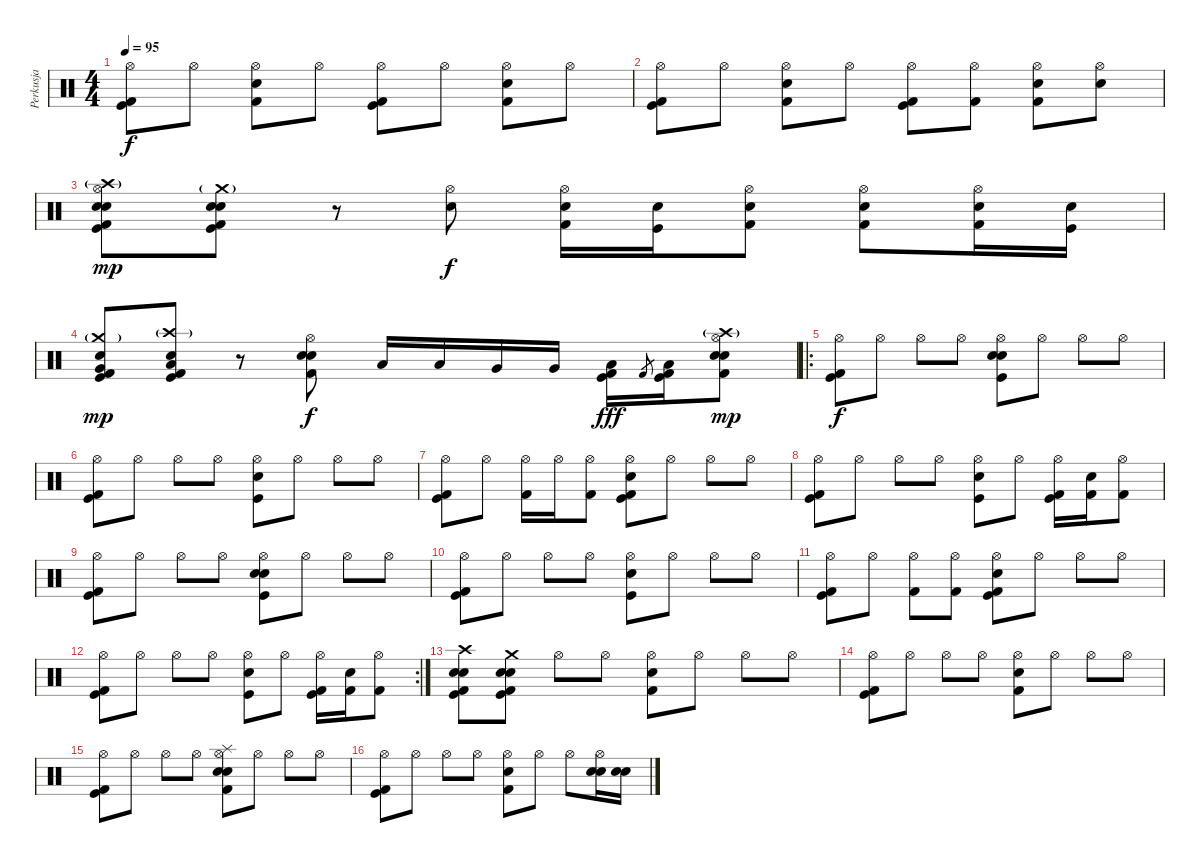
\track ("Perkusja" "Perkusja") {instrument percussion}
\staff {score}
\articulation defaults
\ts (4 4)
\tempo 95
\clef neutral
\ks c
("Hi-Hat (open)" "Kick (hit)" "Kick (hit) 2").8{dy f} "Hi-Hat (open)".8 ("Hi-Hat (open)" "Electric Snare (hit)" "Kick (hit) 2").8 "Hi-Hat (open)".8 ("Hi-Hat (open)" "Kick (hit)" "Kick (hit) 2").8 "Hi-Hat (open)".8 ("Hi-Hat (open)" "Electric Snare (hit)" "Kick (hit) 2").8 "Hi-Hat (open)".8 |
("Hi-Hat (open)" "Kick (hit)" "Kick (hit) 2").8 "Hi-Hat (open)".8 ("Hi-Hat (open)" "Electric Snare (hit)" "Kick (hit) 2").8 "Hi-Hat (open)".8 ("Hi-Hat (open)" "Kick (hit)" "Kick (hit) 2").8 ("Hi-Hat (open)" "Kick (hit) 2").8 ("Hi-Hat (open)" "Electric Snare (hit)" "Kick (hit) 2").8 ("Hi-Hat (open)" "Electric Snare (hit)").8 |
("Crash high (hit)"{g} "Hi-Hat (open)" "Snare (hit) 2" "Electric Snare (hit)" "Kick (hit)" "Kick (hit) 2").8{dy mp} ("Crash medium (hit)"{g} "Snare (hit) 2" "Electric Snare (hit)" "Kick (hit)" "Kick (hit) 2").8 r.8 ("Hi-Hat (open)" "Electric Snare (hit)").8{dy f} ("Hi-Hat (open)" "Electric Snare (hit)" "Kick (hit) 2").16 ("Electric Snare (hit)" "Kick (hit)").16 ("Hi-Hat (open)" "Electric Snare (hit)" "Kick (hit) 2").8 ("Hi-Hat (open)" "Electric Snare (hit)" "Kick (hit) 2").8 ("Hi-Hat (open)" "Electric Snare (hit)" "Kick (hit) 2").16 ("Electric Snare (hit)" "Kick (hit)").16 |
("Crash medium (hit)"{g} "Snare (hit) 2" "Kick (hit)" "Kick (hit) 2" "Very Low Tom (hit)").8{dy mp} ("Crash high (hit)"{g} "Snare (hit) 2" "Kick (hit) 2" "Kick (hit)" "Low Floor Tom (hit)").8 r.8 ("Hi-Hat (open)" "Snare (hit) 2" "Electric Snare (hit)" "Kick (hit) 2").8{dy f} "Low Tom (hit)".16 "Low Tom (hit)".16 "Very Low Tom (hit)".16 "Very Low Tom (hit)".16 ("Kick (hit)" "Low Floor Tom (hit)" "Kick (hit) 2").16{dy fff} "Kick (hit) 2".8{gr} ("Kick (hit)" "Low Floor Tom (hit)" "Kick (hit) 2").16 ("Hi-Hat (open)" "Crash high (hit)"{g} "Snare (hit) 2" "Electric Snare (hit)" "Kick (hit) 2").8{dy mp} |
\ro
("Hi-Hat (open)" "Kick (hit)" "Kick (hit) 2").8{dy f} "Hi-Hat (open)".8 "Hi-Hat (open)".8 "Hi-Hat (open)".8 ("Hi-Hat (open)" "Snare (hit) 2" "Kick (hit)" "Electric Snare (hit)").8 "Hi-Hat (open)".8 "Hi-Hat (open)".8 "Hi-Hat (open)".8 |
("Hi-Hat (open)" "Kick (hit)" "Kick (hit) 2").8 "Hi-Hat (open)".8 "Hi-Hat (open)".8 "Hi-Hat (open)".8 ("Hi-Hat (open)" "Kick (hit)" "Electric Snare (hit)").8 "Hi-Hat (open)".8 "Hi-Hat (open)".8 "Hi-Hat (open)".8 |
("Hi-Hat (open)" "Kick (hit)" "Kick (hit) 2").8 "Hi-Hat (open)".8 ("Hi-Hat (open)" "Kick (hit) 2").16 "Hi-Hat (open)".16 ("Hi-Hat (open)" "Kick (hit) 2").8 ("Hi-Hat (open)" "Kick (hit) 2" "Kick (hit)" "Electric Snare (hit)").8 "Hi-Hat (open)".8 "Hi-Hat (open)".8 "Hi-Hat (open)".8 |
("Hi-Hat (open)" "Kick (hit)" "Kick (hit) 2").8 "Hi-Hat (open)".8 "Hi-Hat (open)".8 "Hi-Hat (open)".8 ("Hi-Hat (open)" "Kick (hit)" "Electric Snare (hit)").8 "Hi-Hat (open)".8 ("Hi-Hat (open)" "Kick (hit)" "Kick (hit) 2").16 ("Electric Snare (hit)" "Kick (hit) 2").16 ("Hi-Hat (open)" "Kick (hit) 2").8 |
("Hi-Hat (open)" "Kick (hit)" "Kick (hit) 2").8 "Hi-Hat (open)".8 "Hi-Hat (open)".8 "Hi-Hat (open)".8 ("Hi-Hat (open)" "Snare (hit) 2" "Kick (hit)" "Electric Snare (hit)").8 "Hi-Hat (open)".8 "Hi-Hat (open)".8 "Hi-Hat (open)".8 |
("Hi-Hat (open)" "Kick (hit)" "Kick (hit) 2").8 "Hi-Hat (open)".8 "Hi-Hat (open)".8 "Hi-Hat (open)".8 ("Hi-Hat (open)" "Kick (hit)" "Electric Snare (hit)").8 "Hi-Hat (open)".8 "Hi-Hat (open)".8 "Hi-Hat (open)".8 |
("Hi-Hat (open)" "Kick (hit)" "Kick (hit) 2").8 "Hi-Hat (open)".8 ("Hi-Hat (open)" "Kick (hit) 2").8 ("Hi-Hat (open)" "Kick (hit) 2").8 ("Hi-Hat (open)" "Kick (hit) 2" "Kick (hit)" "Electric Snare (hit)").8 "Hi-Hat (open)".8 "Hi-Hat (open)".8 "Hi-Hat (open)".8 |
\rc 2
("Hi-Hat (open)" "Kick (hit)" "Kick (hit) 2").8 "Hi-Hat (open)".8 "Hi-Hat (open)".8 "Hi-Hat (open)".8 ("Hi-Hat (open)" "Kick (hit)" "Electric Snare (hit)").8 "Hi-Hat (open)".8 ("Hi-Hat (open)" "Kick (hit)" "Kick (hit) 2").16 ("Electric Snare (hit)" "Kick (hit) 2").16 ("Hi-Hat (open)" "Kick (hit) 2").8 |
("Crash high (hit)" "Snare (hit) 2" "Electric Snare (hit)" "Kick (hit)" "Kick (hit) 2").8 ("Crash medium (hit)" "Snare (hit) 2" "Electric Snare (hit)" "Kick (hit)" "Kick (hit) 2").8 "Hi-Hat (open)".8 "Hi-Hat (open)".8 ("Hi-Hat (open)" "Kick (hit) 2" "Electric Snare (hit)").8 "Hi-Hat (open)".8 "Hi-Hat (open)".8 "Hi-Hat (open)".8 |
("Hi-Hat (open)" "Kick (hit)" "Kick (hit) 2").8 "Hi-Hat (open)".8 "Hi-Hat (open)".8 "Hi-Hat (open)".8 ("Hi-Hat (open)" "Kick (hit) 2" "Electric Snare (hit)").8 "Hi-Hat (open)".8 "Hi-Hat (open)".8 "Hi-Hat (open)".8 |
("Hi-Hat (open)" "Kick (hit)" "Kick (hit) 2").8 "Hi-Hat (open)".8 "Hi-Hat (open)".8 "Hi-Hat (open)".8 ("Hi-Hat (open)" "Splash (hit)" "Snare (hit) 2" "Kick (hit) 2" "Electric Snare (hit)").8 "Hi-Hat (open)".8 "Hi-Hat (open)".8 "Hi-Hat (open)".8 |
("Hi-Hat (open)" "Kick (hit)" "Kick (hit) 2").8 "Hi-Hat (open)".8 "Hi-Hat (open)".8 "Hi-Hat (open)".8 ("Hi-Hat (open)" "Kick (hit) 2" "Electric Snare (hit)").8 "Hi-Hat (open)".8 "Hi-Hat (open)".8 ("Hi-Hat (open)" "Electric Snare (hit)" "Electric Snare (hit)").16 ("Electric Snare (hit)" "Electric Snare (hit)").16
